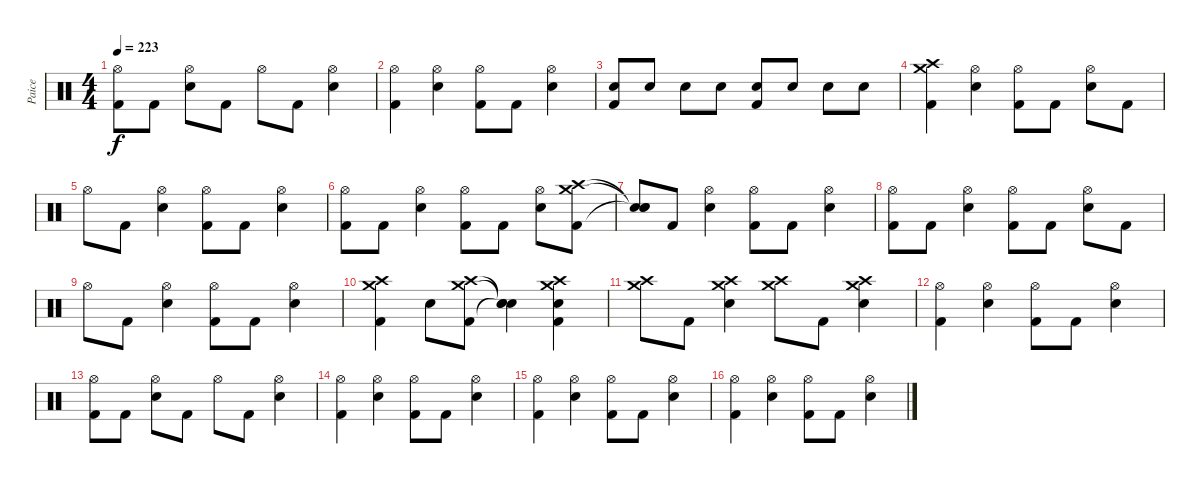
\track ("Paice" "Paice") {instrument percussion}
\staff {score}
\articulation defaults
\ts (4 4)
\tempo 223
\clef neutral
\ks c
("Hi-Hat (open)" "Kick (hit) 2").8{dy f} "Kick (hit) 2".8 ("Hi-Hat (open)" "Electric Snare (hit)").8 "Kick (hit) 2".8 "Hi-Hat (open)".8 "Kick (hit) 2".8 ("Hi-Hat (open)" "Electric Snare (hit)").4 |
("Hi-Hat (open)" "Kick (hit) 2").4 ("Hi-Hat (open)" "Electric Snare (hit)").4 ("Hi-Hat (open)" "Kick (hit) 2").8 "Kick (hit) 2".8 ("Hi-Hat (open)" "Electric Snare (hit)").4 |
("Electric Snare (hit)" "Kick (hit) 2").8 "Electric Snare (hit)".8 "Electric Snare (hit)".8 "Electric Snare (hit)".8 ("Electric Snare (hit)" "Kick (hit) 2").8 "Electric Snare (hit)".8 "Electric Snare (hit)".8 "Electric Snare (hit)".8 |
("Crash high (hit)" "Crash medium (hit)" "Kick (hit) 2").4 ("Hi-Hat (open)" "Electric Snare (hit)").4 ("Hi-Hat (open)" "Kick (hit) 2").8 "Kick (hit) 2".8 ("Hi-Hat (open)" "Electric Snare (hit)").8 "Kick (hit) 2".8 |
"Hi-Hat (open)".8 "Kick (hit) 2".8 ("Hi-Hat (open)" "Electric Snare (hit)").4 ("Hi-Hat (open)" "Kick (hit) 2").8 "Kick (hit) 2".8 ("Hi-Hat (open)" "Electric Snare (hit)").4 |
("Hi-Hat (open)" "Kick (hit) 2").8 "Kick (hit) 2".8 ("Hi-Hat (open)" "Electric Snare (hit)").4 ("Hi-Hat (open)" "Kick (hit) 2").8 "Kick (hit) 2".8 ("Hi-Hat (open)" "Electric Snare (hit)").8 ("Crash high (hit)" "Crash medium (hit)" "Kick (hit) 2").8 |
("Snare (hit)"{t} "Snare (hit)"{t} "Snare (hit)"{t}).8 "Kick (hit) 2".8 ("Hi-Hat (open)" "Electric Snare (hit)").4 ("Hi-Hat (open)" "Kick (hit) 2").8 "Kick (hit) 2".8 ("Hi-Hat (open)" "Electric Snare (hit)").4 |
("Hi-Hat (open)" "Kick (hit) 2").8 "Kick (hit) 2".8 ("Hi-Hat (open)" "Electric Snare (hit)").4 ("Hi-Hat (open)" "Kick (hit) 2").8 "Kick (hit) 2".8 ("Hi-Hat (open)" "Electric Snare (hit)").8 "Kick (hit) 2".8 |
"Hi-Hat (open)".8 "Kick (hit) 2".8 ("Hi-Hat (open)" "Electric Snare (hit)").4 ("Hi-Hat (open)" "Kick (hit) 2").8 "Kick (hit) 2".8 ("Hi-Hat (open)" "Electric Snare (hit)").4 |
("Crash high (hit)" "Crash medium (hit)" "Kick (hit) 2").4 "Electric Snare (hit)".8 ("Crash high (hit)" "Crash medium (hit)" "Kick (hit) 2").8 ("Snare (hit)"{t} "Snare (hit)"{t} "Snare (hit)"{t}).4 ("Crash high (hit)" "Crash medium (hit)" "Electric Snare (hit)" "Kick (hit) 2").4 |
("Crash high (hit)" "Crash medium (hit)").8 "Kick (hit) 2".8 ("Crash high (hit)" "Crash medium (hit)" "Electric Snare (hit)").4 ("Crash high (hit)" "Crash medium (hit)").8 "Kick (hit) 2".8 ("Crash high (hit)" "Crash medium (hit)" "Electric Snare (hit)").4 |
("Hi-Hat (open)" "Kick (hit) 2").4 ("Hi-Hat (open)" "Electric Snare (hit)").4 ("Hi-Hat (open)" "Kick (hit) 2").8 "Kick (hit) 2".8 ("Hi-Hat (open)" "Electric Snare (hit)").4 |
("Hi-Hat (open)" "Kick (hit) 2").8 "Kick (hit) 2".8 ("Hi-Hat (open)" "Electric Snare (hit)").8 "Kick (hit) 2".8 "Hi-Hat (open)".8 "Kick (hit) 2".8 ("Hi-Hat (open)" "Electric Snare (hit)").4 |
("Hi-Hat (open)" "Kick (hit) 2").4 ("Hi-Hat (open)" "Electric Snare (hit)").4 ("Hi-Hat (open)" "Kick (hit) 2").8 "Kick (hit) 2".8 ("Hi-Hat (open)" "Electric Snare (hit)").4 |
("Hi-Hat (open)" "Kick (hit) 2").4 ("Hi-Hat (open)" "Electric Snare (hit)").4 ("Hi-Hat (open)" "Kick (hit) 2").8 "Kick (hit) 2".8 ("Hi-Hat (open)" "Electric Snare (hit)").4 |
("Hi-Hat (open)" "Kick (hit) 2").4 ("Hi-Hat (open)" "Electric Snare (hit)").4 ("Hi-Hat (open)" "Kick (hit) 2").8 "Kick (hit) 2".8 ("Hi-Hat (open)" "Electric Snare (hit)").4
